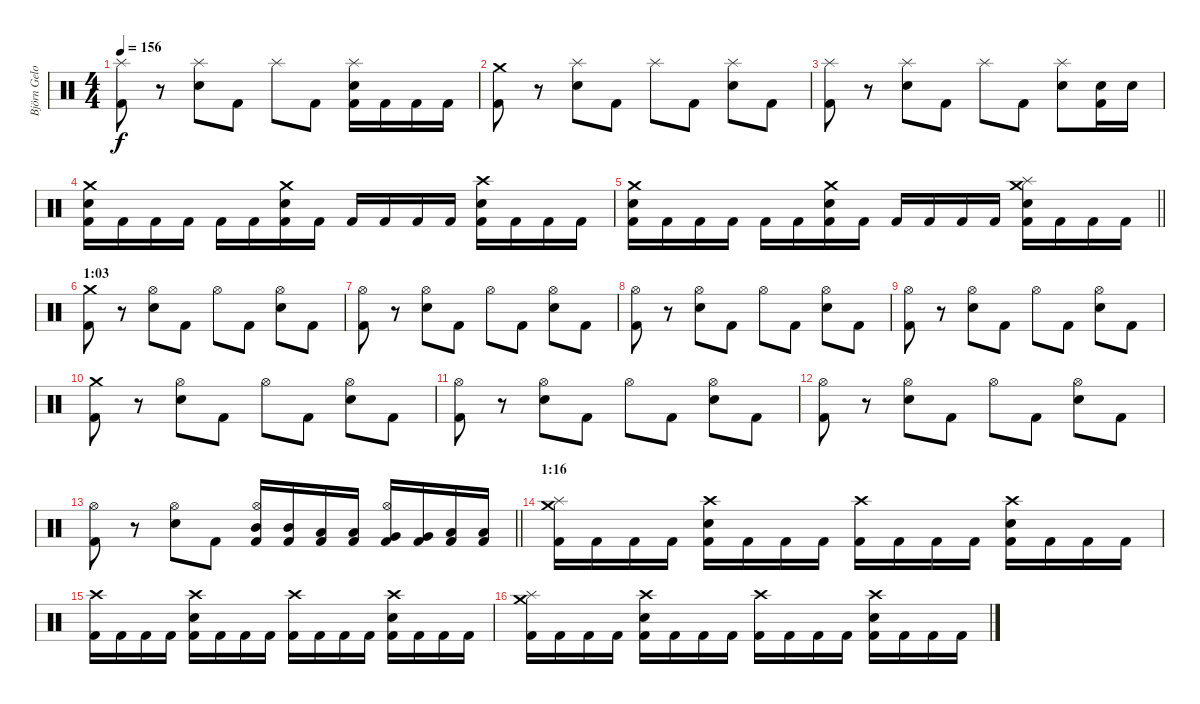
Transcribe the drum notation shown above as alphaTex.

\track ("Björn Gelotte" "Björn Gelo") {instrument percussion}
\staff {score}
\articulation defaults
\ts (4 4)
\tempo 156
\clef neutral
\ks c
("Splash (hit)" "Kick (hit) 2").8{dy f} r.8 ("Splash (hit)" "Electric Snare (hit)").8 "Kick (hit) 2".8 "Splash (hit)".8 "Kick (hit) 2".8 ("Splash (hit)" "Electric Snare (hit)" "Kick (hit) 2").16 "Kick (hit) 2".16 "Kick (hit) 2".16 "Kick (hit) 2".16 |
("Crash medium (hit)" "Kick (hit) 2").8 r.8 ("Splash (hit)" "Electric Snare (hit)").8 "Kick (hit) 2".8 "Splash (hit)".8 "Kick (hit) 2".8 ("Splash (hit)" "Electric Snare (hit)").8 "Kick (hit) 2".8 |
("Splash (hit)" "Kick (hit) 2").8 r.8 ("Splash (hit)" "Electric Snare (hit)").8 "Kick (hit) 2".8 "Splash (hit)".8 "Kick (hit) 2".8 ("Splash (hit)" "Electric Snare (hit)").8 ("Electric Snare (hit)" "Kick (hit) 2").16 "Electric Snare (hit)".16 |
("Crash medium (hit)" "Electric Snare (hit)" "Kick (hit) 2").16 "Kick (hit) 2".16 "Kick (hit) 2".16 "Kick (hit) 2".16 "Kick (hit) 2".16 "Kick (hit) 2".16 ("Crash medium (hit)" "Electric Snare (hit)" "Kick (hit) 2").16 "Kick (hit) 2".16 "Kick (hit) 2".16 "Kick (hit) 2".16 "Kick (hit) 2".16 "Kick (hit) 2".16 ("Crash high (hit)" "Electric Snare (hit)" "Kick (hit) 2").16 "Kick (hit) 2".16 "Kick (hit) 2".16 "Kick (hit) 2".16 |
\barLineRight lightlight
("Crash medium (hit)" "Electric Snare (hit)" "Kick (hit) 2").16 "Kick (hit) 2".16 "Kick (hit) 2".16 "Kick (hit) 2".16 "Kick (hit) 2".16 "Kick (hit) 2".16 ("Crash medium (hit)" "Electric Snare (hit)" "Kick (hit) 2").16 "Kick (hit) 2".16 "Kick (hit) 2".16 "Kick (hit) 2".16 "Kick (hit) 2".16 "Kick (hit) 2".16 ("Crash medium (hit)" "Splash (hit)" "Electric Snare (hit)" "Kick (hit) 2").16 "Kick (hit) 2".16 "Kick (hit) 2".16 "Kick (hit) 2".16 |
\section ("" "1:03")
("Crash medium (hit)" "Kick (hit) 2").8 r.8 ("Hi-Hat (open)" "Electric Snare (hit)").8 "Kick (hit) 2".8 "Hi-Hat (open)".8 "Kick (hit) 2".8 ("Hi-Hat (open)" "Electric Snare (hit)").8 "Kick (hit) 2".8 |
("Hi-Hat (open)" "Kick (hit) 2").8 r.8 ("Hi-Hat (open)" "Electric Snare (hit)").8 "Kick (hit) 2".8 "Hi-Hat (open)".8 "Kick (hit) 2".8 ("Hi-Hat (open)" "Electric Snare (hit)").8 "Kick (hit) 2".8 |
("Hi-Hat (open)" "Kick (hit) 2").8 r.8 ("Hi-Hat (open)" "Electric Snare (hit)").8 "Kick (hit) 2".8 "Hi-Hat (open)".8 "Kick (hit) 2".8 ("Hi-Hat (open)" "Electric Snare (hit)").8 "Kick (hit) 2".8 |
("Hi-Hat (open)" "Kick (hit) 2").8 r.8 ("Hi-Hat (open)" "Electric Snare (hit)").8 "Kick (hit) 2".8 "Hi-Hat (open)".8 "Kick (hit) 2".8 ("Hi-Hat (open)" "Electric Snare (hit)").8 "Kick (hit) 2".8 |
("Crash medium (hit)" "Kick (hit) 2").8 r.8 ("Hi-Hat (open)" "Electric Snare (hit)").8 "Kick (hit) 2".8 "Hi-Hat (open)".8 "Kick (hit) 2".8 ("Hi-Hat (open)" "Electric Snare (hit)").8 "Kick (hit) 2".8 |
("Hi-Hat (open)" "Kick (hit) 2").8 r.8 ("Hi-Hat (open)" "Electric Snare (hit)").8 "Kick (hit) 2".8 "Hi-Hat (open)".8 "Kick (hit) 2".8 ("Hi-Hat (open)" "Electric Snare (hit)").8 "Kick (hit) 2".8 |
("Hi-Hat (open)" "Kick (hit) 2").8 r.8 ("Hi-Hat (open)" "Electric Snare (hit)").8 "Kick (hit) 2".8 "Hi-Hat (open)".8 "Kick (hit) 2".8 ("Hi-Hat (open)" "Electric Snare (hit)").8 "Kick (hit) 2".8 |
\barLineRight lightlight
("Hi-Hat (open)" "Kick (hit) 2").8 r.8 ("Hi-Hat (open)" "Electric Snare (hit)").8 "Kick (hit) 2".8 ("Hi-Hat (open)" "Mid Tom (hit)" "Kick (hit) 2").16 ("Mid Tom (hit)" "Kick (hit) 2").16 ("Low Tom (hit)" "Kick (hit) 2").16 ("Low Tom (hit)" "Kick (hit) 2").16 ("Hi-Hat (open)" "Very Low Tom (hit)" "Kick (hit) 2").16 ("Very Low Tom (hit)" "Kick (hit) 2").16 ("Low Floor Tom (hit)" "Kick (hit) 2").16 ("Low Floor Tom (hit)" "Kick (hit) 2").16 |
\section ("" "1:16")
("Crash medium (hit)" "Splash (hit)" "Kick (hit) 2").16 "Kick (hit) 2".16 "Kick (hit) 2".16 "Kick (hit) 2".16 ("Crash high (hit)" "Electric Snare (hit)" "Kick (hit) 2").16 "Kick (hit) 2".16 "Kick (hit) 2".16 "Kick (hit) 2".16 ("Crash high (hit)" "Kick (hit) 2").16 "Kick (hit) 2".16 "Kick (hit) 2".16 "Kick (hit) 2".16 ("Crash high (hit)" "Electric Snare (hit)" "Kick (hit) 2").16 "Kick (hit) 2".16 "Kick (hit) 2".16 "Kick (hit) 2".16 |
("Crash high (hit)" "Kick (hit) 2").16 "Kick (hit) 2".16 "Kick (hit) 2".16 "Kick (hit) 2".16 ("Crash high (hit)" "Electric Snare (hit)" "Kick (hit) 2").16 "Kick (hit) 2".16 "Kick (hit) 2".16 "Kick (hit) 2".16 ("Crash high (hit)" "Kick (hit) 2").16 "Kick (hit) 2".16 "Kick (hit) 2".16 "Kick (hit) 2".16 ("Crash high (hit)" "Electric Snare (hit)" "Kick (hit) 2").16 "Kick (hit) 2".16 "Kick (hit) 2".16 "Kick (hit) 2".16 |
("Crash medium (hit)" "Splash (hit)" "Kick (hit) 2").16 "Kick (hit) 2".16 "Kick (hit) 2".16 "Kick (hit) 2".16 ("Crash high (hit)" "Electric Snare (hit)" "Kick (hit) 2").16 "Kick (hit) 2".16 "Kick (hit) 2".16 "Kick (hit) 2".16 ("Crash high (hit)" "Kick (hit) 2").16 "Kick (hit) 2".16 "Kick (hit) 2".16 "Kick (hit) 2".16 ("Crash high (hit)" "Electric Snare (hit)" "Kick (hit) 2").16 "Kick (hit) 2".16 "Kick (hit) 2".16 "Kick (hit) 2".16
